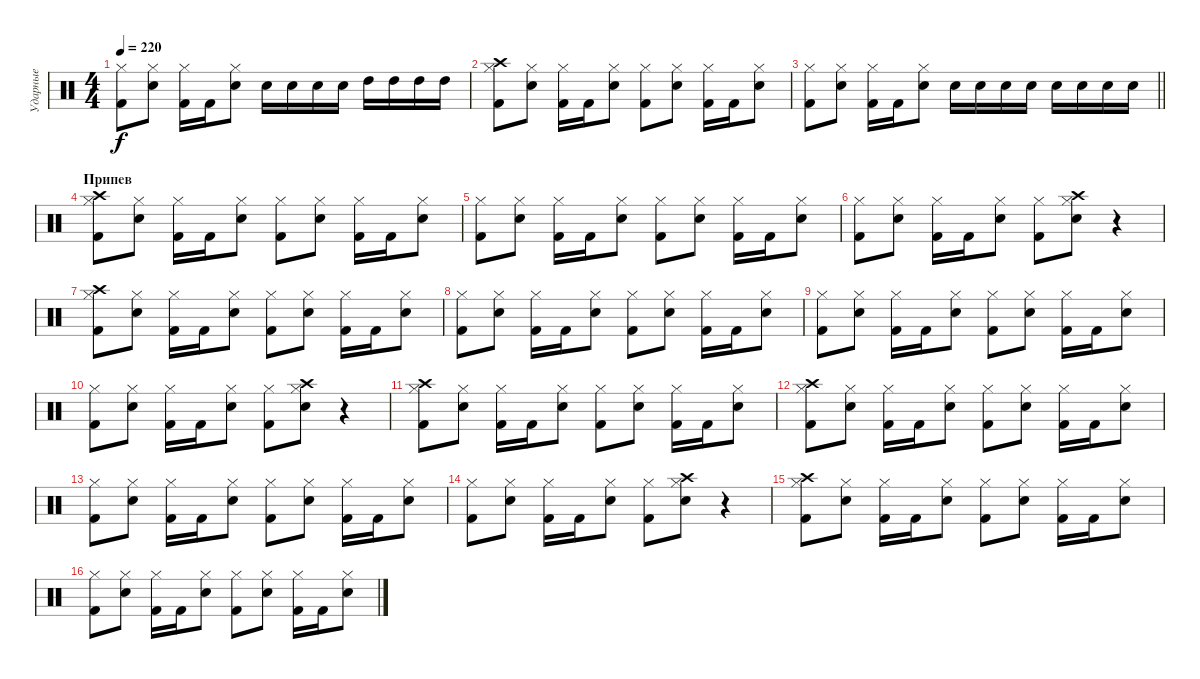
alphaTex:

\track ("Ударные" "Ударные") {instrument percussion}
\staff {score}
\articulation defaults
\ts (4 4)
\tempo 220
\clef neutral
\ks c
("Kick (hit) 2" "Hi-Hat (closed)").8{dy f} ("Snare (hit) 2" "Hi-Hat (closed)").8 ("Kick (hit) 2" "Hi-Hat (closed)").16 "Kick (hit) 2".16 ("Snare (hit) 2" "Hi-Hat (closed)").8 "Snare (hit) 2".16 "Snare (hit) 2".16 "Snare (hit) 2".16 "Snare (hit) 2".16 "High Tom (hit)".16 "High Tom (hit)".16 "High Tom (hit)".16 "High Tom (hit)".16 |
("Kick (hit) 2" "Hi-Hat (closed)" "Crash high (hit)").8 ("Snare (hit) 2" "Hi-Hat (closed)").8 ("Kick (hit) 2" "Hi-Hat (closed)").16 "Kick (hit) 2".16 ("Snare (hit) 2" "Hi-Hat (closed)").8 ("Kick (hit) 2" "Hi-Hat (closed)").8 ("Snare (hit) 2" "Hi-Hat (closed)").8 ("Kick (hit) 2" "Hi-Hat (closed)").16 "Kick (hit) 2".16 ("Snare (hit) 2" "Hi-Hat (closed)").8 |
\barLineRight lightlight
("Kick (hit) 2" "Hi-Hat (closed)").8 ("Snare (hit) 2" "Hi-Hat (closed)").8 ("Kick (hit) 2" "Hi-Hat (closed)").16 "Kick (hit) 2".16 ("Snare (hit) 2" "Hi-Hat (closed)").8 "Snare (hit) 2".16 "Snare (hit) 2".16 "Snare (hit) 2".16 "Snare (hit) 2".16 "Snare (hit) 2".16 "Snare (hit) 2".16 "Snare (hit) 2".16 "Snare (hit) 2".16 |
\section ("" "Припев")
("Kick (hit) 2" "Hi-Hat (closed)" "Crash high (hit)").8 ("Snare (hit) 2" "Hi-Hat (closed)").8 ("Kick (hit) 2" "Hi-Hat (closed)").16 "Kick (hit) 2".16 ("Snare (hit) 2" "Hi-Hat (closed)").8 ("Kick (hit) 2" "Hi-Hat (closed)").8 ("Snare (hit) 2" "Hi-Hat (closed)").8 ("Kick (hit) 2" "Hi-Hat (closed)").16 "Kick (hit) 2".16 ("Snare (hit) 2" "Hi-Hat (closed)").8 |
("Kick (hit) 2" "Hi-Hat (closed)").8 ("Snare (hit) 2" "Hi-Hat (closed)").8 ("Kick (hit) 2" "Hi-Hat (closed)").16 "Kick (hit) 2".16 ("Snare (hit) 2" "Hi-Hat (closed)").8 ("Kick (hit) 2" "Hi-Hat (closed)").8 ("Snare (hit) 2" "Hi-Hat (closed)").8 ("Kick (hit) 2" "Hi-Hat (closed)").16 "Kick (hit) 2".16 ("Snare (hit) 2" "Hi-Hat (closed)").8 |
("Kick (hit) 2" "Hi-Hat (closed)").8 ("Snare (hit) 2" "Hi-Hat (closed)").8 ("Kick (hit) 2" "Hi-Hat (closed)").16 "Kick (hit) 2".16 ("Snare (hit) 2" "Hi-Hat (closed)").8 ("Kick (hit) 2" "Hi-Hat (closed)").8 ("Snare (hit) 2" "Hi-Hat (closed)" "Crash high (hit)").8 r.4 |
("Kick (hit) 2" "Hi-Hat (closed)" "Crash high (hit)").8 ("Snare (hit) 2" "Hi-Hat (closed)").8 ("Kick (hit) 2" "Hi-Hat (closed)").16 "Kick (hit) 2".16 ("Snare (hit) 2" "Hi-Hat (closed)").8 ("Kick (hit) 2" "Hi-Hat (closed)").8 ("Snare (hit) 2" "Hi-Hat (closed)").8 ("Kick (hit) 2" "Hi-Hat (closed)").16 "Kick (hit) 2".16 ("Snare (hit) 2" "Hi-Hat (closed)").8 |
("Kick (hit) 2" "Hi-Hat (closed)").8 ("Snare (hit) 2" "Hi-Hat (closed)").8 ("Kick (hit) 2" "Hi-Hat (closed)").16 "Kick (hit) 2".16 ("Snare (hit) 2" "Hi-Hat (closed)").8 ("Kick (hit) 2" "Hi-Hat (closed)").8 ("Snare (hit) 2" "Hi-Hat (closed)").8 ("Kick (hit) 2" "Hi-Hat (closed)").16 "Kick (hit) 2".16 ("Snare (hit) 2" "Hi-Hat (closed)").8 |
("Kick (hit) 2" "Hi-Hat (closed)").8 ("Snare (hit) 2" "Hi-Hat (closed)").8 ("Kick (hit) 2" "Hi-Hat (closed)").16 "Kick (hit) 2".16 ("Snare (hit) 2" "Hi-Hat (closed)").8 ("Kick (hit) 2" "Hi-Hat (closed)").8 ("Snare (hit) 2" "Hi-Hat (closed)").8 ("Kick (hit) 2" "Hi-Hat (closed)").16 "Kick (hit) 2".16 ("Snare (hit) 2" "Hi-Hat (closed)").8 |
("Kick (hit) 2" "Hi-Hat (closed)").8 ("Snare (hit) 2" "Hi-Hat (closed)").8 ("Kick (hit) 2" "Hi-Hat (closed)").16 "Kick (hit) 2".16 ("Snare (hit) 2" "Hi-Hat (closed)").8 ("Kick (hit) 2" "Hi-Hat (closed)").8 ("Snare (hit) 2" "Hi-Hat (closed)" "Crash high (hit)").8 r.4 |
("Kick (hit) 2" "Hi-Hat (closed)" "Crash high (hit)").8 ("Snare (hit) 2" "Hi-Hat (closed)").8 ("Kick (hit) 2" "Hi-Hat (closed)").16 "Kick (hit) 2".16 ("Snare (hit) 2" "Hi-Hat (closed)").8 ("Kick (hit) 2" "Hi-Hat (closed)").8 ("Snare (hit) 2" "Hi-Hat (closed)").8 ("Kick (hit) 2" "Hi-Hat (closed)").16 "Kick (hit) 2".16 ("Snare (hit) 2" "Hi-Hat (closed)").8 |
("Kick (hit) 2" "Hi-Hat (closed)" "Crash high (hit)").8 ("Snare (hit) 2" "Hi-Hat (closed)").8 ("Kick (hit) 2" "Hi-Hat (closed)").16 "Kick (hit) 2".16 ("Snare (hit) 2" "Hi-Hat (closed)").8 ("Kick (hit) 2" "Hi-Hat (closed)").8 ("Snare (hit) 2" "Hi-Hat (closed)").8 ("Kick (hit) 2" "Hi-Hat (closed)").16 "Kick (hit) 2".16 ("Snare (hit) 2" "Hi-Hat (closed)").8 |
("Kick (hit) 2" "Hi-Hat (closed)").8 ("Snare (hit) 2" "Hi-Hat (closed)").8 ("Kick (hit) 2" "Hi-Hat (closed)").16 "Kick (hit) 2".16 ("Snare (hit) 2" "Hi-Hat (closed)").8 ("Kick (hit) 2" "Hi-Hat (closed)").8 ("Snare (hit) 2" "Hi-Hat (closed)").8 ("Kick (hit) 2" "Hi-Hat (closed)").16 "Kick (hit) 2".16 ("Snare (hit) 2" "Hi-Hat (closed)").8 |
("Kick (hit) 2" "Hi-Hat (closed)").8 ("Snare (hit) 2" "Hi-Hat (closed)").8 ("Kick (hit) 2" "Hi-Hat (closed)").16 "Kick (hit) 2".16 ("Snare (hit) 2" "Hi-Hat (closed)").8 ("Kick (hit) 2" "Hi-Hat (closed)").8 ("Snare (hit) 2" "Hi-Hat (closed)" "Crash high (hit)").8 r.4 |
("Kick (hit) 2" "Hi-Hat (closed)" "Crash high (hit)").8 ("Snare (hit) 2" "Hi-Hat (closed)").8 ("Kick (hit) 2" "Hi-Hat (closed)").16 "Kick (hit) 2".16 ("Snare (hit) 2" "Hi-Hat (closed)").8 ("Kick (hit) 2" "Hi-Hat (closed)").8 ("Snare (hit) 2" "Hi-Hat (closed)").8 ("Kick (hit) 2" "Hi-Hat (closed)").16 "Kick (hit) 2".16 ("Snare (hit) 2" "Hi-Hat (closed)").8 |
("Kick (hit) 2" "Hi-Hat (closed)").8 ("Snare (hit) 2" "Hi-Hat (closed)").8 ("Kick (hit) 2" "Hi-Hat (closed)").16 "Kick (hit) 2".16 ("Snare (hit) 2" "Hi-Hat (closed)").8 ("Kick (hit) 2" "Hi-Hat (closed)").8 ("Snare (hit) 2" "Hi-Hat (closed)").8 ("Kick (hit) 2" "Hi-Hat (closed)").16 "Kick (hit) 2".16 ("Snare (hit) 2" "Hi-Hat (closed)").8
